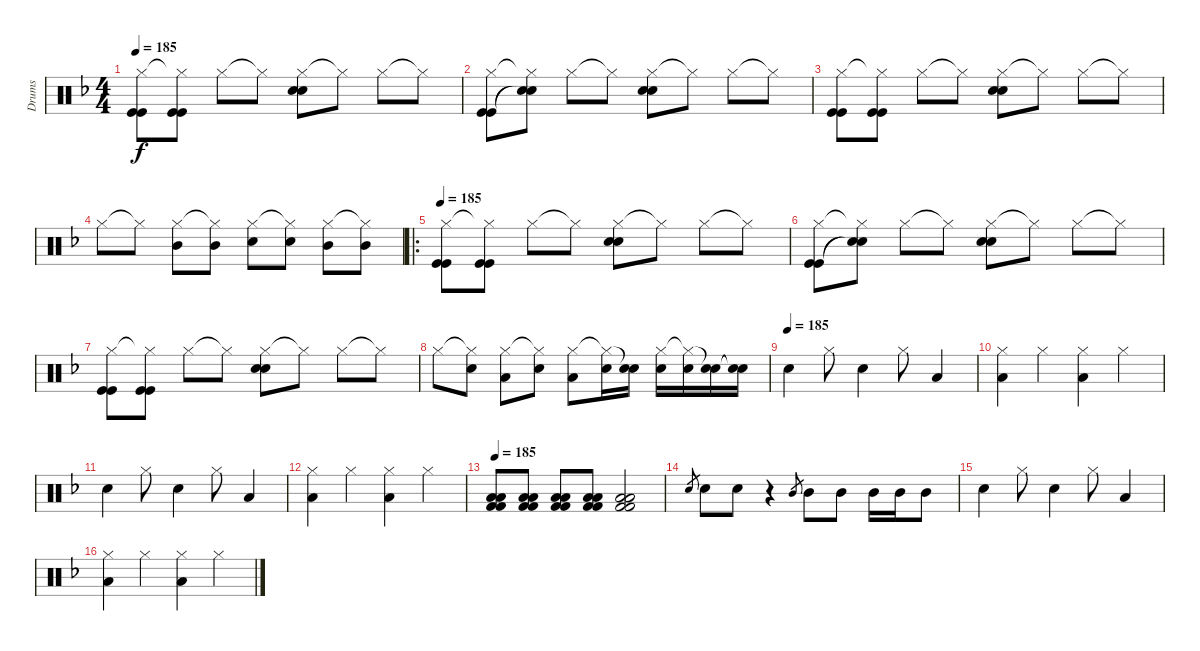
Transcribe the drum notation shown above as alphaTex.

\track ("Drums" "Drums") {instrument percussion}
\staff {score}
\articulation defaults
\ts (4 4)
\tempo 185
\clef neutral
\ks f
("Hi-Hat (closed)" "Kick (hit)" "Kick (hit)").8{dy f} ("Hi-Hat (closed)"{t} "Kick (hit)" "Kick (hit)").8 "Hi-Hat (closed)".8 "Hi-Hat (closed)"{t}.8 ("Hi-Hat (closed)" "Snare (hit) 2" "Snare (hit) 2").8 "Hi-Hat (closed)"{t}.8 "Hi-Hat (closed)".8 "Hi-Hat (closed)"{t}.8 |
("Hi-Hat (closed)" "Kick (hit)" "Kick (hit)").8 ("Hi-Hat (closed)"{t} "Snare (hit)"{t} "Snare (hit)"{t}).8 "Hi-Hat (closed)".8 "Hi-Hat (closed)"{t}.8 ("Hi-Hat (closed)" "Snare (hit) 2" "Snare (hit) 2").8 "Hi-Hat (closed)"{t}.8 "Hi-Hat (closed)".8 "Hi-Hat (closed)"{t}.8 |
("Hi-Hat (closed)" "Kick (hit)" "Kick (hit)").8 ("Hi-Hat (closed)"{t} "Kick (hit)" "Kick (hit)").8 "Hi-Hat (closed)".8 "Hi-Hat (closed)"{t}.8 ("Hi-Hat (closed)" "Snare (hit) 2" "Snare (hit) 2").8 "Hi-Hat (closed)"{t}.8 "Hi-Hat (closed)".8 "Hi-Hat (closed)"{t}.8 |
"Hi-Hat (closed)".8 "Hi-Hat (closed)"{t}.8 ("Hi-Hat (closed)" "Mid Tom (hit)").8 ("Hi-Hat (closed)"{t} "Mid Tom (hit)").8 ("Hi-Hat (closed)" "Snare (hit) 2").8 ("Hi-Hat (closed)"{t} "Snare (hit) 2").8 ("Hi-Hat (closed)" "Mid Tom (hit)").8 ("Hi-Hat (closed)"{t} "Mid Tom (hit)").8 |
\ro
\tempo 185
("Hi-Hat (closed)" "Kick (hit)" "Kick (hit)").8 ("Hi-Hat (closed)"{t} "Kick (hit)" "Kick (hit)").8 "Hi-Hat (closed)".8 "Hi-Hat (closed)"{t}.8 ("Hi-Hat (closed)" "Snare (hit) 2" "Snare (hit) 2").8 "Hi-Hat (closed)"{t}.8 "Hi-Hat (closed)".8 "Hi-Hat (closed)"{t}.8 |
("Hi-Hat (closed)" "Kick (hit)" "Kick (hit)").8 ("Hi-Hat (closed)"{t} "Snare (hit)"{t} "Snare (hit)"{t}).8 "Hi-Hat (closed)".8 "Hi-Hat (closed)"{t}.8 ("Hi-Hat (closed)" "Snare (hit) 2" "Snare (hit) 2").8 "Hi-Hat (closed)"{t}.8 "Hi-Hat (closed)".8 "Hi-Hat (closed)"{t}.8 |
("Hi-Hat (closed)" "Kick (hit)" "Kick (hit)").8 ("Hi-Hat (closed)"{t} "Kick (hit)" "Kick (hit)").8 "Hi-Hat (closed)".8 "Hi-Hat (closed)"{t}.8 ("Hi-Hat (closed)" "Snare (hit) 2" "Snare (hit) 2").8 "Hi-Hat (closed)"{t}.8 "Hi-Hat (closed)".8 "Hi-Hat (closed)"{t}.8 |
"Hi-Hat (closed)".8 ("Hi-Hat (closed)"{t} "Snare (hit) 2").8 ("Hi-Hat (closed)" "Low Floor Tom (hit)").8 ("Hi-Hat (closed)"{t} "Snare (hit) 2").8 ("Hi-Hat (closed)" "Low Floor Tom (hit)").8 ("Hi-Hat (closed)"{t} "Snare (hit) 2").16 ("Snare (hit)"{t} "Snare (hit) 2").16 ("Hi-Hat (closed)" "Snare (hit) 2").16 ("Hi-Hat (closed)"{t} "Snare (hit) 2").16 ("Snare (hit)"{t} "Snare (hit) 2").16 ("Snare (hit)"{t} "Snare (hit) 2"{t}).16 |
\tempo (185)
"Snare (hit) 2".4 "Hi-Hat (closed)".8 "Snare (hit) 2".4 "Hi-Hat (closed)".8 "Low Floor Tom (hit)".4 |
("Hi-Hat (closed)" "Low Floor Tom (hit)").4 "Hi-Hat (closed)".4 ("Hi-Hat (closed)" "Low Floor Tom (hit)").4 "Hi-Hat (closed)".4 |
"Snare (hit) 2".4 "Hi-Hat (closed)".8 "Snare (hit) 2".4 "Hi-Hat (closed)".8 "Low Floor Tom (hit)".4 |
("Hi-Hat (closed)" "Low Floor Tom (hit)").4 "Hi-Hat (closed)".4 ("Hi-Hat (closed)" "Low Floor Tom (hit)").4 "Hi-Hat (closed)".4 |
\tempo 185
("Low Floor Tom (hit)" "Low Floor Tom (hit)" "Kick (hit) 2" "Kick (hit) 2").8 ("Low Floor Tom (hit)" "Low Floor Tom (hit)" "Kick (hit) 2" "Kick (hit) 2").8 ("Low Floor Tom (hit)" "Low Floor Tom (hit)" "Kick (hit) 2" "Kick (hit) 2").8 ("Low Floor Tom (hit)" "Low Floor Tom (hit)" "Kick (hit) 2" "Kick (hit) 2").8 ("Low Floor Tom (hit)" "Low Floor Tom (hit)" "Kick (hit) 2" "Kick (hit) 2").2 |
"Electric Snare (hit)".8{gr} "Electric Snare (hit)".8 "Electric Snare (hit)".8 r.4 "Mid Tom (hit)".8{gr} "Mid Tom (hit)".8 "Mid Tom (hit)".8 "Mid Tom (hit)".16 "Mid Tom (hit)".16 "Mid Tom (hit)".8 |
"Snare (hit) 2".4 "Hi-Hat (closed)".8 "Snare (hit) 2".4 "Hi-Hat (closed)".8 "Low Floor Tom (hit)".4 |
("Hi-Hat (closed)" "Low Floor Tom (hit)").4 "Hi-Hat (closed)".4 ("Hi-Hat (closed)" "Low Floor Tom (hit)").4 "Hi-Hat (closed)".4
